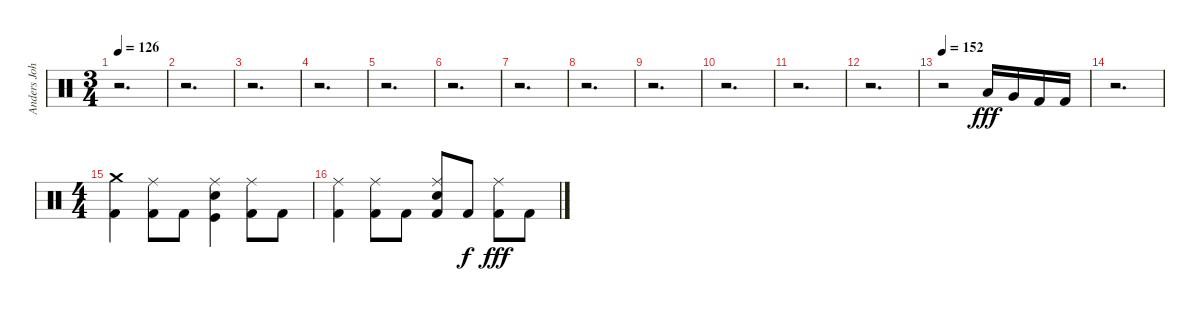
\track ("Anders Johansson (Drums)" "Anders Joh") {instrument percussion}
\staff {score}
\articulation defaults
\ts (3 4)
\tempo 126
\clef neutral
\ks c
r.2{d dy fff volume 16} |
r.2{d} |
r.2{d} |
r.2{d} |
r.2{d} |
r.2{d} |
r.2{d} |
r.2{d} |
r.2{d} |
r.2{d} |
r.2{d} |
r.2{d} |
\tempo 152
r.2 "Low Tom (hit)".16 "Very Low Tom (hit)".16 "Kick (hit) 2".16 "Kick (hit) 2".16 |
r.2{d} |
\ts (4 4)
("Kick (hit) 2" "Crash medium (hit)").4 ("Kick (hit) 2" "Ride (middle)").8 "Kick (hit) 2".8 ("Kick (hit)" "Electric Snare (hit)" "Ride (middle)").4 ("Kick (hit) 2" "Ride (middle)").8 "Kick (hit) 2".8 |
("Kick (hit) 2" "Ride (middle)").4 ("Kick (hit) 2" "Ride (middle)").8 "Kick (hit) 2".8 ("Kick (hit) 2" "Electric Snare (hit)" "Ride (middle)").8 "Kick (hit) 2".8{dy f} ("Kick (hit) 2" "Ride (middle)").8{dy fff} "Kick (hit) 2".8
